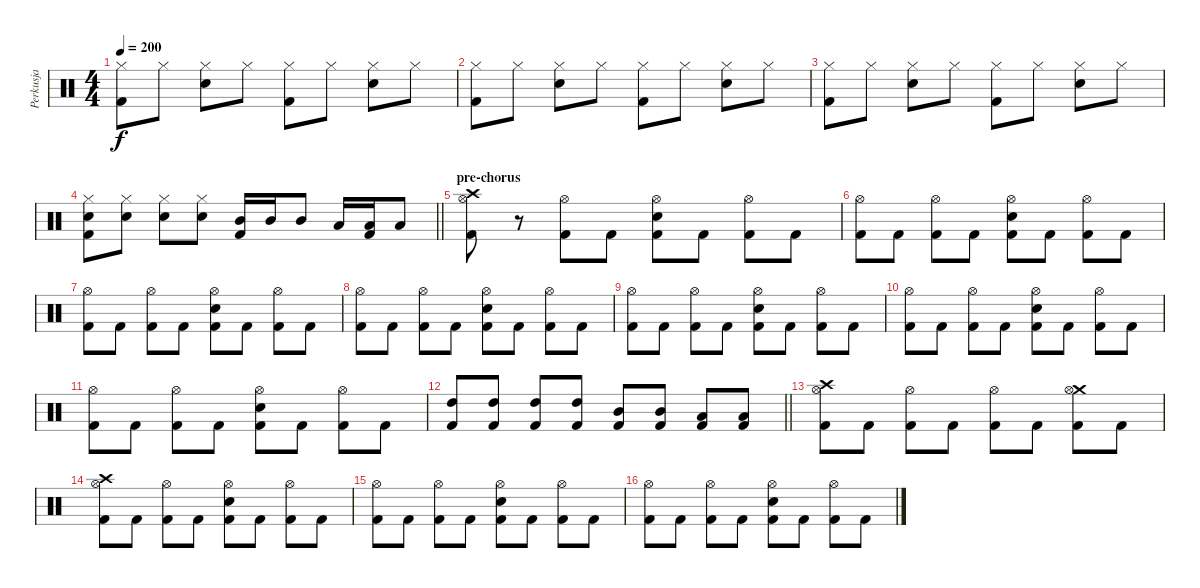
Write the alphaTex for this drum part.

\track ("Perkusja" "Perkusja") {instrument percussion}
\staff {score}
\articulation defaults
\ts (4 4)
\tempo 200
\clef neutral
\ks c
("Hi-Hat (closed)" "Kick (hit) 2").8{dy f} "Hi-Hat (closed)".8 ("Hi-Hat (closed)" "Electric Snare (hit)").8 "Hi-Hat (closed)".8 ("Hi-Hat (closed)" "Kick (hit) 2").8 "Hi-Hat (closed)".8 ("Hi-Hat (closed)" "Electric Snare (hit)").8 "Hi-Hat (closed)".8 |
("Hi-Hat (closed)" "Kick (hit) 2").8 "Hi-Hat (closed)".8 ("Hi-Hat (closed)" "Electric Snare (hit)").8 "Hi-Hat (closed)".8 ("Hi-Hat (closed)" "Kick (hit) 2").8 "Hi-Hat (closed)".8 ("Hi-Hat (closed)" "Electric Snare (hit)").8 "Hi-Hat (closed)".8 |
("Hi-Hat (closed)" "Kick (hit) 2").8 "Hi-Hat (closed)".8 ("Hi-Hat (closed)" "Electric Snare (hit)").8 "Hi-Hat (closed)".8 ("Hi-Hat (closed)" "Kick (hit) 2").8 "Hi-Hat (closed)".8 ("Hi-Hat (closed)" "Electric Snare (hit)").8 "Hi-Hat (closed)".8 |
\barLineRight lightlight
("Hi-Hat (closed)" "Electric Snare (hit)" "Kick (hit) 2").8 ("Hi-Hat (closed)" "Electric Snare (hit)").8 ("Hi-Hat (closed)" "Electric Snare (hit)").8 ("Hi-Hat (closed)" "Electric Snare (hit)").8 ("Mid Tom (hit)" "Kick (hit) 2").16 "Mid Tom (hit)".16 "Mid Tom (hit)".8 "Low Tom (hit)".16 ("Low Tom (hit)" "Kick (hit) 2").16 "Low Tom (hit)".8 |
\section ("" "pre-chorus")
("Crash high (hit)" "Hi-Hat (open)" "Kick (hit) 2").8 r.8 ("Hi-Hat (open)" "Kick (hit) 2").8 "Kick (hit) 2".8 ("Hi-Hat (open)" "Electric Snare (hit)" "Kick (hit) 2").8 "Kick (hit) 2".8 ("Hi-Hat (open)" "Kick (hit) 2").8 "Kick (hit) 2".8 |
("Hi-Hat (open)" "Kick (hit) 2").8 "Kick (hit) 2".8 ("Hi-Hat (open)" "Kick (hit) 2").8 "Kick (hit) 2".8 ("Hi-Hat (open)" "Electric Snare (hit)" "Kick (hit) 2").8 "Kick (hit) 2".8 ("Hi-Hat (open)" "Kick (hit) 2").8 "Kick (hit) 2".8 |
("Hi-Hat (open)" "Kick (hit) 2").8 "Kick (hit) 2".8 ("Hi-Hat (open)" "Kick (hit) 2").8 "Kick (hit) 2".8 ("Hi-Hat (open)" "Electric Snare (hit)" "Kick (hit) 2").8 "Kick (hit) 2".8 ("Hi-Hat (open)" "Kick (hit) 2").8 "Kick (hit) 2".8 |
("Hi-Hat (open)" "Kick (hit) 2").8 "Kick (hit) 2".8 ("Hi-Hat (open)" "Kick (hit) 2").8 "Kick (hit) 2".8 ("Hi-Hat (open)" "Electric Snare (hit)" "Kick (hit) 2").8 "Kick (hit) 2".8 ("Hi-Hat (open)" "Kick (hit) 2").8 "Kick (hit) 2".8 |
("Hi-Hat (open)" "Kick (hit) 2").8 "Kick (hit) 2".8 ("Hi-Hat (open)" "Kick (hit) 2").8 "Kick (hit) 2".8 ("Hi-Hat (open)" "Electric Snare (hit)" "Kick (hit) 2").8 "Kick (hit) 2".8 ("Hi-Hat (open)" "Kick (hit) 2").8 "Kick (hit) 2".8 |
("Hi-Hat (open)" "Kick (hit) 2").8 "Kick (hit) 2".8 ("Hi-Hat (open)" "Kick (hit) 2").8 "Kick (hit) 2".8 ("Hi-Hat (open)" "Electric Snare (hit)" "Kick (hit) 2").8 "Kick (hit) 2".8 ("Hi-Hat (open)" "Kick (hit) 2").8 "Kick (hit) 2".8 |
("Hi-Hat (open)" "Kick (hit) 2").8 "Kick (hit) 2".8 ("Hi-Hat (open)" "Kick (hit) 2").8 "Kick (hit) 2".8 ("Hi-Hat (open)" "Electric Snare (hit)" "Kick (hit) 2").8 "Kick (hit) 2".8 ("Hi-Hat (open)" "Kick (hit) 2").8 "Kick (hit) 2".8 |
\barLineRight lightlight
("High Tom (hit)" "Kick (hit) 2").8 ("High Tom (hit)" "Kick (hit) 2").8 ("High Tom (hit)" "Kick (hit) 2").8 ("High Tom (hit)" "Kick (hit) 2").8 ("Mid Tom (hit)" "Kick (hit) 2").8 ("Mid Tom (hit)" "Kick (hit) 2").8 ("Low Tom (hit)" "Kick (hit) 2").8 ("Low Tom (hit)" "Kick (hit) 2").8 |
("Crash high (hit)" "Hi-Hat (open)" "Kick (hit) 2").8 "Kick (hit) 2".8 ("Hi-Hat (open)" "Kick (hit) 2").8 "Kick (hit) 2".8 ("Hi-Hat (open)" "Kick (hit) 2").8 "Kick (hit) 2".8 ("Crash medium (hit)" "Hi-Hat (open)" "Kick (hit) 2").8 "Kick (hit) 2".8 |
("Crash high (hit)" "Hi-Hat (open)" "Kick (hit) 2").8 "Kick (hit) 2".8 ("Hi-Hat (open)" "Kick (hit) 2").8 "Kick (hit) 2".8 ("Hi-Hat (open)" "Electric Snare (hit)" "Kick (hit) 2").8 "Kick (hit) 2".8 ("Hi-Hat (open)" "Kick (hit) 2").8 "Kick (hit) 2".8 |
("Hi-Hat (open)" "Kick (hit) 2").8 "Kick (hit) 2".8 ("Hi-Hat (open)" "Kick (hit) 2").8 "Kick (hit) 2".8 ("Hi-Hat (open)" "Electric Snare (hit)" "Kick (hit) 2").8 "Kick (hit) 2".8 ("Hi-Hat (open)" "Kick (hit) 2").8 "Kick (hit) 2".8 |
("Hi-Hat (open)" "Kick (hit) 2").8 "Kick (hit) 2".8 ("Hi-Hat (open)" "Kick (hit) 2").8 "Kick (hit) 2".8 ("Hi-Hat (open)" "Electric Snare (hit)" "Kick (hit) 2").8 "Kick (hit) 2".8 ("Hi-Hat (open)" "Kick (hit) 2").8 "Kick (hit) 2".8
